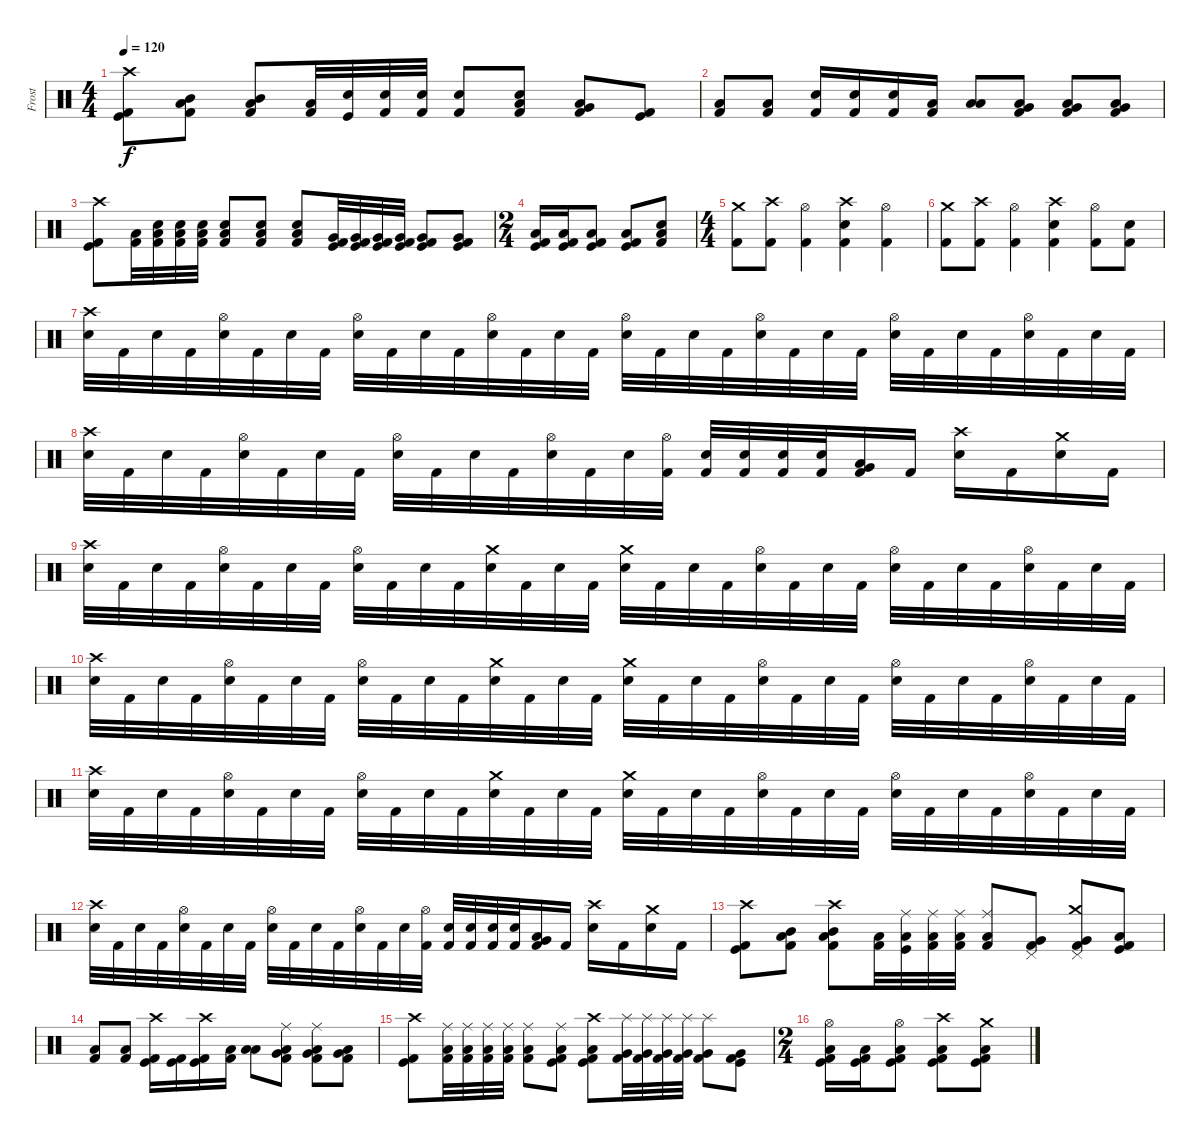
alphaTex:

\track ("Frost" "Frost") {instrument percussion}
\staff {score}
\articulation defaults
\ts (4 4)
\tempo 120
\clef neutral
\ks c
("Crash high (hit)" "Kick (hit)" "Kick (hit) 2").8{dy f} ("Mid Tom (hit)" "Low Tom (hit)" "Kick (hit) 2").8 ("Mid Tom (hit)" "Low Tom (hit)" "Kick (hit) 2").8 ("Low Tom (hit)" "Kick (hit) 2").32 ("Electric Snare (hit)" "Kick (hit)").32 ("Electric Snare (hit)" "Kick (hit) 2").32 ("Electric Snare (hit)" "Kick (hit) 2").32 ("Electric Snare (hit)" "Kick (hit) 2").8 ("Low Tom (hit)" "Electric Snare (hit)" "Kick (hit) 2").8 ("Low Tom (hit)" "Very Low Tom (hit)" "Kick (hit) 2").8 ("Kick (hit)" "Kick (hit) 2").8 |
("Low Tom (hit)" "Kick (hit) 2").8 ("Low Tom (hit)" "Kick (hit) 2").8 ("Electric Snare (hit)" "Kick (hit) 2").16 ("Electric Snare (hit)" "Kick (hit) 2").16 ("Electric Snare (hit)" "Kick (hit) 2").16 ("Low Tom (hit)" "Kick (hit) 2").16 ("Low Floor Tom (hit)" "Low Tom (hit)").8 ("Very Low Tom (hit)" "Low Floor Tom (hit)" "Kick (hit) 2").8 ("Very Low Tom (hit)" "Low Floor Tom (hit)" "Kick (hit) 2").8 ("Very Low Tom (hit)" "Low Floor Tom (hit)" "Kick (hit) 2").8 |
("Crash high (hit)" "Kick (hit)" "Kick (hit) 2").8 ("Low Tom (hit)" "Kick (hit) 2").32 ("Electric Snare (hit)" "Low Tom (hit)" "Kick (hit) 2").32 ("Electric Snare (hit)" "Low Tom (hit)" "Kick (hit) 2").32 ("Electric Snare (hit)" "Low Tom (hit)" "Kick (hit) 2").32 ("Electric Snare (hit)" "Low Tom (hit)" "Kick (hit) 2").8 ("Electric Snare (hit)" "Low Tom (hit)" "Kick (hit) 2").8 ("Electric Snare (hit)" "Low Tom (hit)" "Kick (hit) 2").8 ("Kick (hit)" "Very Low Tom (hit)" "Kick (hit) 2").32 ("Kick (hit)" "Very Low Tom (hit)" "Kick (hit) 2").32 ("Kick (hit)" "Very Low Tom (hit)" "Kick (hit) 2").32 ("Kick (hit)" "Very Low Tom (hit)" "Kick (hit) 2").32 ("Kick (hit)" "Very Low Tom (hit)" "Kick (hit) 2").8 ("Kick (hit)" "Very Low Tom (hit)" "Kick (hit) 2").8 |
\ts (2 4)
("Kick (hit)" "Low Floor Tom (hit)" "Kick (hit) 2").16 ("Kick (hit)" "Low Floor Tom (hit)" "Kick (hit) 2").16 ("Kick (hit)" "Low Floor Tom (hit)" "Kick (hit) 2").8 ("Kick (hit)" "Low Floor Tom (hit)" "Kick (hit) 2").8 ("Electric Snare (hit)" "Low Floor Tom (hit)" "Kick (hit) 2").8 |
\ts (4 4)
("Crash medium (hit)" "Kick (hit) 2").8 ("Crash high (hit)" "Kick (hit) 2").8 ("Hi-Hat (open)" "Kick (hit) 2").4 ("Crash high (hit)" "Snare (hit) 2" "Kick (hit) 2").4 ("Hi-Hat (open)" "Kick (hit) 2").4 |
("Crash medium (hit)" "Kick (hit) 2").8 ("Crash high (hit)" "Kick (hit) 2").8 ("Hi-Hat (open)" "Kick (hit) 2").4 ("Crash high (hit)" "Snare (hit) 2" "Kick (hit) 2").4 ("Hi-Hat (open)" "Kick (hit) 2").8 ("Snare (hit) 2" "Kick (hit) 2").8 |
("Crash high (hit)" "Snare (hit) 2").32 "Kick (hit) 2".32 "Snare (hit) 2".32 "Kick (hit) 2".32 ("Hi-Hat (open)" "Snare (hit) 2").32 "Kick (hit) 2".32 "Snare (hit) 2".32 "Kick (hit) 2".32 ("Hi-Hat (open)" "Snare (hit) 2").32 "Kick (hit) 2".32 "Snare (hit) 2".32 "Kick (hit) 2".32 ("Hi-Hat (open)" "Snare (hit) 2").32 "Kick (hit) 2".32 "Snare (hit) 2".32 "Kick (hit) 2".32 ("Hi-Hat (open)" "Snare (hit) 2").32 "Kick (hit) 2".32 "Snare (hit) 2".32 "Kick (hit) 2".32 ("Hi-Hat (open)" "Snare (hit) 2").32 "Kick (hit) 2".32 "Snare (hit) 2".32 "Kick (hit) 2".32 ("Hi-Hat (open)" "Snare (hit) 2").32 "Kick (hit) 2".32 "Snare (hit) 2".32 "Kick (hit) 2".32 ("Hi-Hat (open)" "Snare (hit) 2").32 "Kick (hit) 2".32 "Snare (hit) 2".32 "Kick (hit) 2".32 |
("Crash high (hit)" "Snare (hit) 2").32 "Kick (hit) 2".32 "Snare (hit) 2".32 "Kick (hit) 2".32 ("Hi-Hat (open)" "Snare (hit) 2").32 "Kick (hit) 2".32 "Snare (hit) 2".32 "Kick (hit) 2".32 ("Hi-Hat (open)" "Snare (hit) 2").32 "Kick (hit) 2".32 "Snare (hit) 2".32 "Kick (hit) 2".32 ("Hi-Hat (open)" "Snare (hit) 2").32 "Kick (hit) 2".32 "Snare (hit) 2".32 ("Hi-Hat (open)" "Kick (hit) 2").32 ("Snare (hit) 2" "Kick (hit) 2").32 ("Snare (hit) 2" "Kick (hit) 2").32 ("Snare (hit) 2" "Kick (hit) 2").32 ("Snare (hit) 2" "Kick (hit) 2").32 ("Low Tom (hit)" "Very Low Tom (hit)" "Kick (hit) 2").16 "Kick (hit) 2".16 ("Crash high (hit)" "Snare (hit) 2").16 "Kick (hit) 2".16 ("Crash medium (hit)" "Snare (hit) 2").16 "Kick (hit) 2".16 |
("Crash high (hit)" "Snare (hit) 2").32 "Kick (hit) 2".32 "Snare (hit) 2".32 "Kick (hit) 2".32 ("Hi-Hat (open)" "Snare (hit) 2").32 "Kick (hit) 2".32 "Snare (hit) 2".32 "Kick (hit) 2".32 ("Hi-Hat (open)" "Snare (hit) 2").32 "Kick (hit) 2".32 "Snare (hit) 2".32 "Kick (hit) 2".32 ("Crash medium (hit)" "Snare (hit) 2").32 "Kick (hit) 2".32 "Snare (hit) 2".32 "Kick (hit) 2".32 ("Crash medium (hit)" "Snare (hit) 2").32 "Kick (hit) 2".32 "Snare (hit) 2".32 "Kick (hit) 2".32 ("Hi-Hat (open)" "Snare (hit) 2").32 "Kick (hit) 2".32 "Snare (hit) 2".32 "Kick (hit) 2".32 ("Hi-Hat (open)" "Snare (hit) 2").32 "Kick (hit) 2".32 "Snare (hit) 2".32 "Kick (hit) 2".32 ("Hi-Hat (open)" "Snare (hit) 2").32 "Kick (hit) 2".32 "Snare (hit) 2".32 "Kick (hit) 2".32 |
("Crash high (hit)" "Snare (hit) 2").32 "Kick (hit) 2".32 "Snare (hit) 2".32 "Kick (hit) 2".32 ("Hi-Hat (open)" "Snare (hit) 2").32 "Kick (hit) 2".32 "Snare (hit) 2".32 "Kick (hit) 2".32 ("Hi-Hat (open)" "Snare (hit) 2").32 "Kick (hit) 2".32 "Snare (hit) 2".32 "Kick (hit) 2".32 ("Crash medium (hit)" "Snare (hit) 2").32 "Kick (hit) 2".32 "Snare (hit) 2".32 "Kick (hit) 2".32 ("Crash medium (hit)" "Snare (hit) 2").32 "Kick (hit) 2".32 "Snare (hit) 2".32 "Kick (hit) 2".32 ("Hi-Hat (open)" "Snare (hit) 2").32 "Kick (hit) 2".32 "Snare (hit) 2".32 "Kick (hit) 2".32 ("Hi-Hat (open)" "Snare (hit) 2").32 "Kick (hit) 2".32 "Snare (hit) 2".32 "Kick (hit) 2".32 ("Hi-Hat (open)" "Snare (hit) 2").32 "Kick (hit) 2".32 "Snare (hit) 2".32 "Kick (hit) 2".32 |
("Crash high (hit)" "Snare (hit) 2").32 "Kick (hit) 2".32 "Snare (hit) 2".32 "Kick (hit) 2".32 ("Hi-Hat (open)" "Snare (hit) 2").32 "Kick (hit) 2".32 "Snare (hit) 2".32 "Kick (hit) 2".32 ("Hi-Hat (open)" "Snare (hit) 2").32 "Kick (hit) 2".32 "Snare (hit) 2".32 "Kick (hit) 2".32 ("Crash medium (hit)" "Snare (hit) 2").32 "Kick (hit) 2".32 "Snare (hit) 2".32 "Kick (hit) 2".32 ("Crash medium (hit)" "Snare (hit) 2").32 "Kick (hit) 2".32 "Snare (hit) 2".32 "Kick (hit) 2".32 ("Hi-Hat (open)" "Snare (hit) 2").32 "Kick (hit) 2".32 "Snare (hit) 2".32 "Kick (hit) 2".32 ("Hi-Hat (open)" "Snare (hit) 2").32 "Kick (hit) 2".32 "Snare (hit) 2".32 "Kick (hit) 2".32 ("Hi-Hat (open)" "Snare (hit) 2").32 "Kick (hit) 2".32 "Snare (hit) 2".32 "Kick (hit) 2".32 |
("Crash high (hit)" "Snare (hit) 2").32 "Kick (hit) 2".32 "Snare (hit) 2".32 "Kick (hit) 2".32 ("Hi-Hat (open)" "Snare (hit) 2").32 "Kick (hit) 2".32 "Snare (hit) 2".32 "Kick (hit) 2".32 ("Hi-Hat (open)" "Snare (hit) 2").32 "Kick (hit) 2".32 "Snare (hit) 2".32 "Kick (hit) 2".32 ("Hi-Hat (open)" "Snare (hit) 2").32 "Kick (hit) 2".32 "Snare (hit) 2".32 ("Hi-Hat (open)" "Kick (hit) 2").32 ("Snare (hit) 2" "Kick (hit) 2").32 ("Snare (hit) 2" "Kick (hit) 2").32 ("Snare (hit) 2" "Kick (hit) 2").32 ("Snare (hit) 2" "Kick (hit) 2").32 ("Low Tom (hit)" "Very Low Tom (hit)" "Kick (hit) 2").16 "Kick (hit) 2".16 ("Crash high (hit)" "Snare (hit) 2").16 "Kick (hit) 2".16 ("Crash medium (hit)" "Snare (hit) 2").16 "Kick (hit) 2".16 |
("Crash high (hit)" "Kick (hit)" "Kick (hit) 2").8 ("Mid Tom (hit)" "Low Tom (hit)" "Kick (hit) 2").8 ("Crash high (hit)" "Mid Tom (hit)" "Low Tom (hit)" "Kick (hit) 2").8 ("Low Tom (hit)" "Kick (hit) 2").32 ("Ride (middle)" "Low Tom (hit)" "Kick (hit)").32 ("Ride (middle)" "Low Tom (hit)" "Kick (hit) 2").32 ("Ride (middle)" "Low Tom (hit)" "Kick (hit) 2").32 ("Ride (middle)" "Low Tom (hit)" "Kick (hit) 2").8 ("Pedal Hi-Hat (hit)" "Very Low Tom (hit)" "Kick (hit) 2").8 ("Crash medium (hit)" "Pedal Hi-Hat (hit)" "Very Low Tom (hit)" "Kick (hit) 2").8 ("Low Tom (hit)" "Kick (hit)" "Kick (hit) 2").8 |
("Low Tom (hit)" "Kick (hit) 2").8 ("Low Tom (hit)" "Kick (hit) 2").8 ("Crash high (hit)" "Kick (hit)" "Kick (hit) 2").16 ("Kick (hit)" "Kick (hit) 2").16 ("Crash high (hit)" "Kick (hit)" "Kick (hit) 2").16 ("Low Tom (hit)" "Kick (hit) 2").16 ("Low Floor Tom (hit)" "Low Tom (hit)").8 ("Ride (middle)" "Very Low Tom (hit)" "Low Floor Tom (hit)" "Kick (hit) 2").8 ("Ride (middle)" "Very Low Tom (hit)" "Low Floor Tom (hit)" "Kick (hit) 2").8 ("Very Low Tom (hit)" "Low Floor Tom (hit)" "Kick (hit) 2").8 |
("Crash high (hit)" "Kick (hit)" "Kick (hit) 2").8 ("Ride (middle)" "Low Tom (hit)" "Kick (hit) 2").32 ("Ride (middle)" "Low Tom (hit)" "Kick (hit) 2").32 ("Ride (middle)" "Low Tom (hit)" "Kick (hit) 2").32 ("Ride (middle)" "Low Tom (hit)" "Kick (hit) 2").32 ("Ride (middle)" "Low Tom (hit)" "Kick (hit) 2").8 ("Ride (middle)" "Kick (hit)" "Low Tom (hit)" "Kick (hit) 2").8 ("Crash high (hit)" "Kick (hit)" "Low Tom (hit)" "Kick (hit) 2").8 ("Splash (hit)" "Very Low Tom (hit)" "Kick (hit) 2").32 ("Splash (hit)" "Very Low Tom (hit)" "Kick (hit) 2").32 ("Splash (hit)" "Very Low Tom (hit)" "Kick (hit) 2").32 ("Splash (hit)" "Very Low Tom (hit)" "Kick (hit) 2").32 ("Splash (hit)" "Very Low Tom (hit)" "Kick (hit) 2").8 ("Kick (hit)" "Very Low Tom (hit)" "Kick (hit) 2").8 |
\ts (2 4)
("Hi-Hat (open)" "Kick (hit)" "Low Floor Tom (hit)" "Kick (hit) 2").16 ("Kick (hit)" "Low Floor Tom (hit)" "Kick (hit) 2").16 ("Hi-Hat (open)" "Kick (hit)" "Low Floor Tom (hit)" "Kick (hit) 2").8 ("Crash high (hit)" "Kick (hit)" "Low Floor Tom (hit)" "Kick (hit) 2").8 ("Crash medium (hit)" "Kick (hit)" "Low Floor Tom (hit)" "Kick (hit) 2").8
